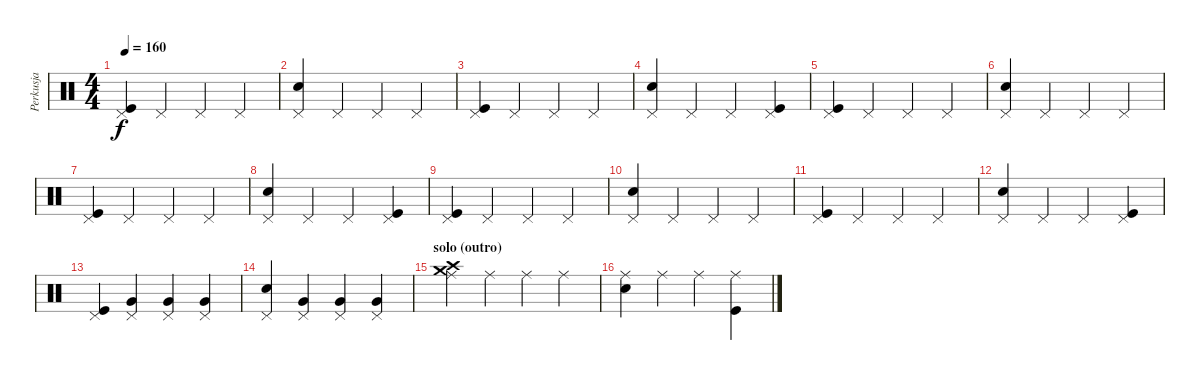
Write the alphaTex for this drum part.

\track ("Perkusja" "Perkusja") {instrument percussion}
\staff {score}
\articulation defaults
\ts (4 4)
\tempo 160
\clef neutral
\ks c
("Kick (hit)" "Pedal Hi-Hat (hit)").4{dy f} "Pedal Hi-Hat (hit)".4 "Pedal Hi-Hat (hit)".4 "Pedal Hi-Hat (hit)".4 |
("Snare (hit) 2" "Pedal Hi-Hat (hit)").4 "Pedal Hi-Hat (hit)".4 "Pedal Hi-Hat (hit)".4 "Pedal Hi-Hat (hit)".4 |
("Kick (hit)" "Pedal Hi-Hat (hit)").4 "Pedal Hi-Hat (hit)".4 "Pedal Hi-Hat (hit)".4 "Pedal Hi-Hat (hit)".4 |
("Snare (hit) 2" "Pedal Hi-Hat (hit)").4 "Pedal Hi-Hat (hit)".4 "Pedal Hi-Hat (hit)".4 ("Kick (hit)" "Pedal Hi-Hat (hit)").4 |
("Kick (hit)" "Pedal Hi-Hat (hit)").4 "Pedal Hi-Hat (hit)".4 "Pedal Hi-Hat (hit)".4 "Pedal Hi-Hat (hit)".4 |
("Snare (hit) 2" "Pedal Hi-Hat (hit)").4 "Pedal Hi-Hat (hit)".4 "Pedal Hi-Hat (hit)".4 "Pedal Hi-Hat (hit)".4 |
("Kick (hit)" "Pedal Hi-Hat (hit)").4 "Pedal Hi-Hat (hit)".4 "Pedal Hi-Hat (hit)".4 "Pedal Hi-Hat (hit)".4 |
("Snare (hit) 2" "Pedal Hi-Hat (hit)").4 "Pedal Hi-Hat (hit)".4 "Pedal Hi-Hat (hit)".4 ("Kick (hit)" "Pedal Hi-Hat (hit)").4 |
("Kick (hit)" "Pedal Hi-Hat (hit)").4 "Pedal Hi-Hat (hit)".4 "Pedal Hi-Hat (hit)".4 "Pedal Hi-Hat (hit)".4 |
("Snare (hit) 2" "Pedal Hi-Hat (hit)").4 "Pedal Hi-Hat (hit)".4 "Pedal Hi-Hat (hit)".4 "Pedal Hi-Hat (hit)".4 |
("Kick (hit)" "Pedal Hi-Hat (hit)").4 "Pedal Hi-Hat (hit)".4 "Pedal Hi-Hat (hit)".4 "Pedal Hi-Hat (hit)".4 |
("Snare (hit) 2" "Pedal Hi-Hat (hit)").4 "Pedal Hi-Hat (hit)".4 "Pedal Hi-Hat (hit)".4 ("Kick (hit)" "Pedal Hi-Hat (hit)").4 |
("Kick (hit)" "Pedal Hi-Hat (hit)").4 ("Very Low Tom (hit)" "Pedal Hi-Hat (hit)").4 ("Very Low Tom (hit)" "Pedal Hi-Hat (hit)").4 ("Very Low Tom (hit)" "Pedal Hi-Hat (hit)").4 |
("Snare (hit) 2" "Pedal Hi-Hat (hit)").4 ("Very Low Tom (hit)" "Pedal Hi-Hat (hit)").4 ("Very Low Tom (hit)" "Pedal Hi-Hat (hit)").4 ("Very Low Tom (hit)" "Pedal Hi-Hat (hit)").4 |
\section ("" "solo (outro)")
("Crash high (hit)" "Crash medium (hit)" "Ride (middle)").4 "Ride (middle)".4 "Ride (middle)".4 "Ride (middle)".4 |
("Snare (hit) 2" "Ride (middle)").4 "Ride (middle)".4 "Ride (middle)".4 ("Kick (hit)" "Ride (middle)").4
